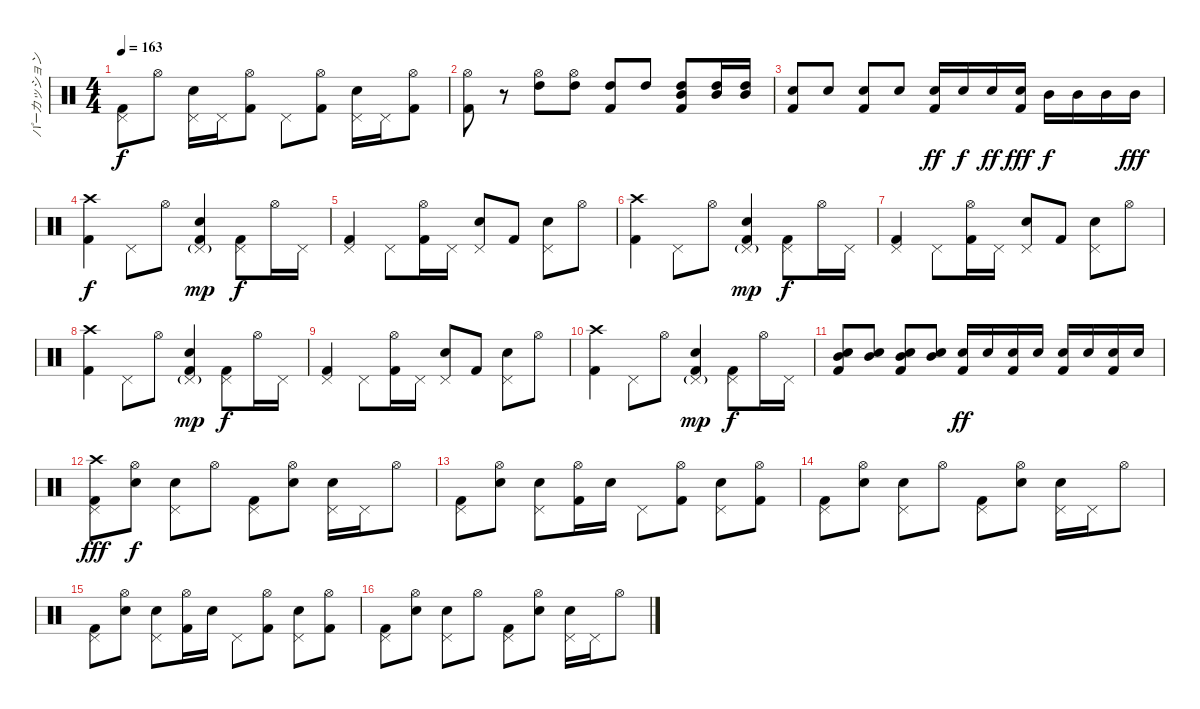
\track ("パーカッション" "パーカッション") {instrument percussion}
\staff {score}
\articulation defaults
\ts (4 4)
\tempo 163
\clef neutral
\ks c
("Pedal Hi-Hat (hit)" "Kick (hit) 2").8{dy f} "Hi-Hat (open)".8 ("Pedal Hi-Hat (hit)" "Snare (hit) 2").16 "Pedal Hi-Hat (hit)".16 ("Hi-Hat (open)" "Kick (hit) 2").8 "Pedal Hi-Hat (hit)".8 ("Hi-Hat (open)" "Kick (hit) 2").8 ("Pedal Hi-Hat (hit)" "Snare (hit) 2").16 "Pedal Hi-Hat (hit)".16 ("Hi-Hat (open)" "Kick (hit) 2").8 |
("Hi-Hat (open)" "Kick (hit) 2").8 r.8 ("Hi-Hat (open)" "High Tom (hit)").8 ("Hi-Hat (open)" "High Tom (hit)").8 ("High Tom (hit)" "Kick (hit) 2").8 "High Tom (hit)".8 ("Mid Tom (hit)" "High Tom (hit)" "Kick (hit) 2").8 ("Mid Tom (hit)" "High Tom (hit)").16 ("Mid Tom (hit)" "High Tom (hit)").16 |
("Snare (hit) 2" "Kick (hit) 2").8 "Snare (hit) 2".8 ("Snare (hit) 2" "Kick (hit) 2").8 "Snare (hit) 2".8 ("Snare (hit) 2" "Kick (hit) 2").16{dy ff} "Snare (hit) 2".16{dy f} "Snare (hit) 2".16{dy ff} ("Snare (hit) 2" "Kick (hit) 2").16{dy fff} "Mid Tom (hit)".16{dy f} "Mid Tom (hit)".16 "Mid Tom (hit)".16 "Mid Tom (hit)".16{dy fff} |
("Crash high (hit)" "Kick (hit) 2").4{dy f} "Pedal Hi-Hat (hit)".8 "Hi-Hat (open)".8 ("Pedal Hi-Hat (hit)"{g} "Snare (hit) 2" "Kick (hit) 2").4{dy mp} ("Pedal Hi-Hat (hit)" "Kick (hit) 2").8{dy f} "Hi-Hat (open)".16 "Pedal Hi-Hat (hit)".16 |
("Pedal Hi-Hat (hit)" "Kick (hit) 2").4 "Pedal Hi-Hat (hit)".8 ("Hi-Hat (open)" "Kick (hit) 2").16 "Pedal Hi-Hat (hit)".16 ("Pedal Hi-Hat (hit)" "Snare (hit) 2").8 "Kick (hit) 2".8 ("Pedal Hi-Hat (hit)" "Snare (hit) 2").8 "Hi-Hat (open)".8 |
("Crash high (hit)" "Kick (hit) 2").4 "Pedal Hi-Hat (hit)".8 "Hi-Hat (open)".8 ("Pedal Hi-Hat (hit)"{g} "Snare (hit) 2" "Kick (hit) 2").4{dy mp} ("Pedal Hi-Hat (hit)" "Kick (hit) 2").8{dy f} "Hi-Hat (open)".16 "Pedal Hi-Hat (hit)".16 |
("Pedal Hi-Hat (hit)" "Kick (hit) 2").4 "Pedal Hi-Hat (hit)".8 ("Hi-Hat (open)" "Kick (hit) 2").16 "Pedal Hi-Hat (hit)".16 ("Pedal Hi-Hat (hit)" "Snare (hit) 2").8 "Kick (hit) 2".8 ("Pedal Hi-Hat (hit)" "Snare (hit) 2").8 "Hi-Hat (open)".8 |
("Crash high (hit)" "Kick (hit) 2").4 "Pedal Hi-Hat (hit)".8 "Hi-Hat (open)".8 ("Pedal Hi-Hat (hit)"{g} "Snare (hit) 2" "Kick (hit) 2").4{dy mp} ("Pedal Hi-Hat (hit)" "Kick (hit) 2").8{dy f} "Hi-Hat (open)".16 "Pedal Hi-Hat (hit)".16 |
("Pedal Hi-Hat (hit)" "Kick (hit) 2").4 "Pedal Hi-Hat (hit)".8 ("Hi-Hat (open)" "Kick (hit) 2").16 "Pedal Hi-Hat (hit)".16 ("Pedal Hi-Hat (hit)" "Snare (hit) 2").8 "Kick (hit) 2".8 ("Pedal Hi-Hat (hit)" "Snare (hit) 2").8 "Hi-Hat (open)".8 |
("Crash high (hit)" "Kick (hit) 2").4 "Pedal Hi-Hat (hit)".8 "Hi-Hat (open)".8 ("Pedal Hi-Hat (hit)"{g} "Snare (hit) 2" "Kick (hit) 2").4{dy mp} ("Pedal Hi-Hat (hit)" "Kick (hit) 2").8{dy f} "Hi-Hat (open)".16 "Pedal Hi-Hat (hit)".16 |
("Mid Tom (hit)" "Snare (hit) 2" "Kick (hit) 2").8 ("Mid Tom (hit)" "Snare (hit) 2").8 ("Mid Tom (hit)" "Snare (hit) 2" "Kick (hit) 2").8 ("Mid Tom (hit)" "Snare (hit) 2").8 ("Snare (hit) 2" "Kick (hit) 2").16{dy ff} "Snare (hit) 2".16 ("Snare (hit) 2" "Kick (hit) 2").16 "Snare (hit) 2".16 ("Snare (hit) 2" "Kick (hit) 2").16 "Snare (hit) 2".16 ("Snare (hit) 2" "Kick (hit) 2").16 "Snare (hit) 2".16 |
("Crash high (hit)" "Pedal Hi-Hat (hit)" "Kick (hit) 2").8{dy fff} ("Hi-Hat (open)" "Snare (hit) 2").8{dy f} ("Pedal Hi-Hat (hit)" "Snare (hit) 2").8 "Hi-Hat (open)".8 ("Pedal Hi-Hat (hit)" "Kick (hit) 2").8 ("Hi-Hat (open)" "Snare (hit) 2").8 ("Pedal Hi-Hat (hit)" "Snare (hit) 2").16 "Pedal Hi-Hat (hit)".16 "Hi-Hat (open)".8 |
("Pedal Hi-Hat (hit)" "Kick (hit) 2").8 ("Hi-Hat (open)" "Snare (hit) 2").8 ("Pedal Hi-Hat (hit)" "Snare (hit) 2").8 ("Hi-Hat (open)" "Kick (hit) 2").16 "Snare (hit) 2".16 "Pedal Hi-Hat (hit)".8 ("Hi-Hat (open)" "Kick (hit) 2").8 ("Pedal Hi-Hat (hit)" "Snare (hit) 2").8 ("Hi-Hat (open)" "Kick (hit) 2").8 |
("Pedal Hi-Hat (hit)" "Kick (hit) 2").8 ("Hi-Hat (open)" "Snare (hit) 2").8 ("Pedal Hi-Hat (hit)" "Snare (hit) 2").8 "Hi-Hat (open)".8 ("Pedal Hi-Hat (hit)" "Kick (hit) 2").8 ("Hi-Hat (open)" "Snare (hit) 2").8 ("Pedal Hi-Hat (hit)" "Snare (hit) 2").16 "Pedal Hi-Hat (hit)".16 "Hi-Hat (open)".8 |
("Pedal Hi-Hat (hit)" "Kick (hit) 2").8 ("Hi-Hat (open)" "Snare (hit) 2").8 ("Pedal Hi-Hat (hit)" "Snare (hit) 2").8 ("Hi-Hat (open)" "Kick (hit) 2").16 "Snare (hit) 2".16 "Pedal Hi-Hat (hit)".8 ("Hi-Hat (open)" "Kick (hit) 2").8 ("Pedal Hi-Hat (hit)" "Snare (hit) 2").8 ("Hi-Hat (open)" "Kick (hit) 2").8 |
("Pedal Hi-Hat (hit)" "Kick (hit) 2").8 ("Hi-Hat (open)" "Snare (hit) 2").8 ("Pedal Hi-Hat (hit)" "Snare (hit) 2").8 "Hi-Hat (open)".8 ("Pedal Hi-Hat (hit)" "Kick (hit) 2").8 ("Hi-Hat (open)" "Snare (hit) 2").8 ("Pedal Hi-Hat (hit)" "Snare (hit) 2").16 "Pedal Hi-Hat (hit)".16 "Hi-Hat (open)".8
